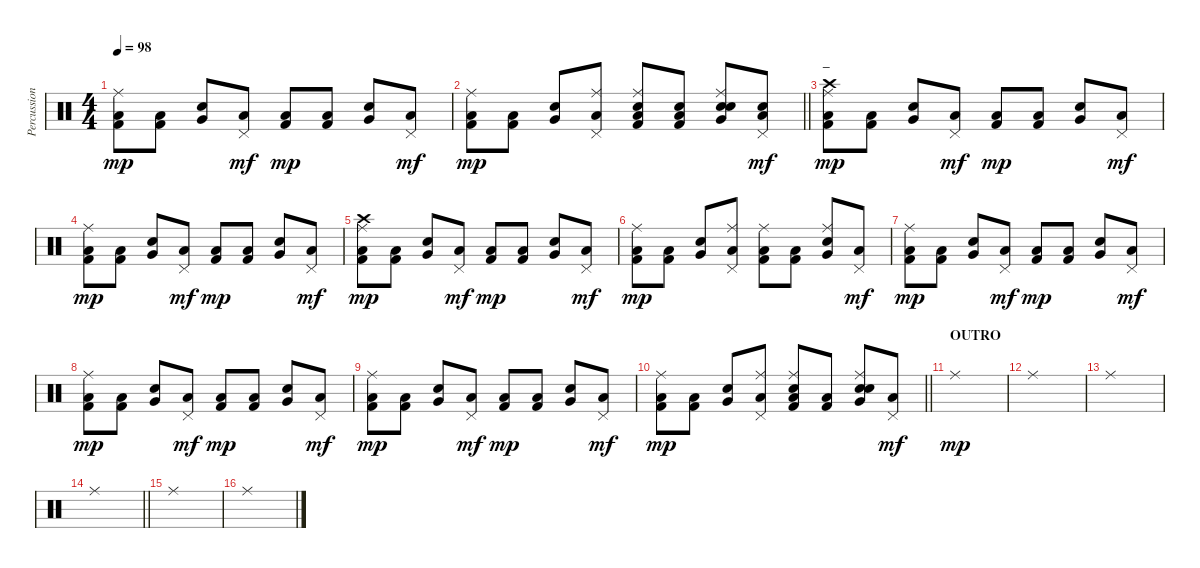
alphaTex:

\track ("Percussion" "Percussion") {instrument percussion}
\staff {score}
\articulation defaults
\ts (4 4)
\tempo 98
\clef neutral
\ks c
("Kick (hit) 2" "Low Floor Tom (hit)" "Ride (middle)").8{dy mp} ("Kick (hit) 2" "Low Floor Tom (hit)").8 ("Snare (hit) 2" "Very Low Tom (hit)").8 ("Low Floor Tom (hit)" "Pedal Hi-Hat (hit)").8{dy mf} ("Kick (hit) 2" "Low Floor Tom (hit)").8{dy mp} ("Kick (hit) 2" "Low Floor Tom (hit)").8 ("Snare (hit) 2" "Very Low Tom (hit)").8 ("Low Floor Tom (hit)" "Pedal Hi-Hat (hit)").8{dy mf} |
\barLineRight lightlight
("Kick (hit) 2" "Low Floor Tom (hit)" "Ride (middle)").8{dy mp} ("Kick (hit) 2" "Low Floor Tom (hit)").8 ("Snare (hit) 2" "Very Low Tom (hit)").8 ("Low Floor Tom (hit)" "Pedal Hi-Hat (hit)" "Ride (middle)").8 ("Kick (hit) 2" "Snare (hit) 2" "Low Floor Tom (hit)" "Ride (middle)").8 ("Kick (hit) 2" "Snare (hit) 2" "Low Floor Tom (hit)").8 ("Snare (hit) 2" "Snare (hit) 2" "Very Low Tom (hit)" "Ride (middle)").8 ("Snare (hit) 2" "Low Floor Tom (hit)" "Pedal Hi-Hat (hit)").8{dy mf} |
\section ("" "_")
("Kick (hit) 2" "Low Floor Tom (hit)" "Crash high (hit)" "Ride (middle)").8{dy mp} ("Kick (hit) 2" "Low Floor Tom (hit)").8 ("Snare (hit) 2" "Very Low Tom (hit)").8 ("Low Floor Tom (hit)" "Pedal Hi-Hat (hit)").8{dy mf} ("Kick (hit) 2" "Low Floor Tom (hit)").8{dy mp} ("Kick (hit) 2" "Low Floor Tom (hit)").8 ("Snare (hit) 2" "Very Low Tom (hit)").8 ("Low Floor Tom (hit)" "Pedal Hi-Hat (hit)").8{dy mf} |
("Kick (hit) 2" "Low Floor Tom (hit)" "Ride (middle)").8{dy mp} ("Kick (hit) 2" "Low Floor Tom (hit)").8 ("Snare (hit) 2" "Very Low Tom (hit)").8 ("Low Floor Tom (hit)" "Pedal Hi-Hat (hit)").8{dy mf} ("Kick (hit) 2" "Low Floor Tom (hit)").8{dy mp} ("Kick (hit) 2" "Low Floor Tom (hit)").8 ("Snare (hit) 2" "Very Low Tom (hit)").8 ("Low Floor Tom (hit)" "Pedal Hi-Hat (hit)").8{dy mf} |
("Kick (hit) 2" "Low Floor Tom (hit)" "Crash high (hit)" "Ride (middle)").8{dy mp} ("Kick (hit) 2" "Low Floor Tom (hit)").8 ("Snare (hit) 2" "Very Low Tom (hit)").8 ("Low Floor Tom (hit)" "Pedal Hi-Hat (hit)").8{dy mf} ("Kick (hit) 2" "Low Floor Tom (hit)").8{dy mp} ("Kick (hit) 2" "Low Floor Tom (hit)").8 ("Snare (hit) 2" "Very Low Tom (hit)").8 ("Low Floor Tom (hit)" "Pedal Hi-Hat (hit)").8{dy mf} |
("Kick (hit) 2" "Low Floor Tom (hit)" "Ride (middle)").8{dy mp} ("Kick (hit) 2" "Low Floor Tom (hit)").8 ("Snare (hit) 2" "Very Low Tom (hit)").8 ("Low Floor Tom (hit)" "Pedal Hi-Hat (hit)" "Ride (middle)").8 ("Kick (hit) 2" "Low Floor Tom (hit)" "Ride (middle)").8 ("Kick (hit) 2" "Low Floor Tom (hit)").8 ("Snare (hit) 2" "Very Low Tom (hit)" "Ride (middle)").8 ("Low Floor Tom (hit)" "Pedal Hi-Hat (hit)").8{dy mf} |
("Kick (hit) 2" "Low Floor Tom (hit)" "Ride (middle)").8{dy mp} ("Kick (hit) 2" "Low Floor Tom (hit)").8 ("Snare (hit) 2" "Very Low Tom (hit)").8 ("Low Floor Tom (hit)" "Pedal Hi-Hat (hit)").8{dy mf} ("Kick (hit) 2" "Low Floor Tom (hit)").8{dy mp} ("Kick (hit) 2" "Low Floor Tom (hit)").8 ("Snare (hit) 2" "Very Low Tom (hit)").8 ("Low Floor Tom (hit)" "Pedal Hi-Hat (hit)").8{dy mf} |
("Kick (hit) 2" "Low Floor Tom (hit)" "Ride (middle)").8{dy mp} ("Kick (hit) 2" "Low Floor Tom (hit)").8 ("Snare (hit) 2" "Very Low Tom (hit)").8 ("Low Floor Tom (hit)" "Pedal Hi-Hat (hit)").8{dy mf} ("Kick (hit) 2" "Low Floor Tom (hit)").8{dy mp} ("Kick (hit) 2" "Low Floor Tom (hit)").8 ("Snare (hit) 2" "Very Low Tom (hit)").8 ("Low Floor Tom (hit)" "Pedal Hi-Hat (hit)").8{dy mf} |
("Kick (hit) 2" "Low Floor Tom (hit)" "Ride (middle)").8{dy mp} ("Kick (hit) 2" "Low Floor Tom (hit)").8 ("Snare (hit) 2" "Very Low Tom (hit)").8 ("Low Floor Tom (hit)" "Pedal Hi-Hat (hit)").8{dy mf} ("Kick (hit) 2" "Low Floor Tom (hit)").8{dy mp} ("Kick (hit) 2" "Low Floor Tom (hit)").8 ("Snare (hit) 2" "Very Low Tom (hit)").8 ("Low Floor Tom (hit)" "Pedal Hi-Hat (hit)").8{dy mf} |
\barLineRight lightlight
("Kick (hit) 2" "Low Floor Tom (hit)" "Ride (middle)").8{dy mp} ("Kick (hit) 2" "Low Floor Tom (hit)").8 ("Snare (hit) 2" "Very Low Tom (hit)").8 ("Low Floor Tom (hit)" "Pedal Hi-Hat (hit)" "Ride (middle)").8 ("Kick (hit) 2" "Snare (hit) 2" "Low Floor Tom (hit)" "Ride (middle)").8 ("Kick (hit) 2" "Low Floor Tom (hit)").8 ("Snare (hit) 2" "Snare (hit) 2" "Very Low Tom (hit)" "Ride (middle)").8 ("Low Floor Tom (hit)" "Pedal Hi-Hat (hit)").8{dy mf} |
\section ("" "OUTRO")
"Ride (middle)".1{dy mp} |
"Ride (middle)".1 |
"Ride (middle)".1 |
\barLineRight lightlight "Ride (middle)".1
|
"Ride (middle)".1 |
"Ride (middle)".1
